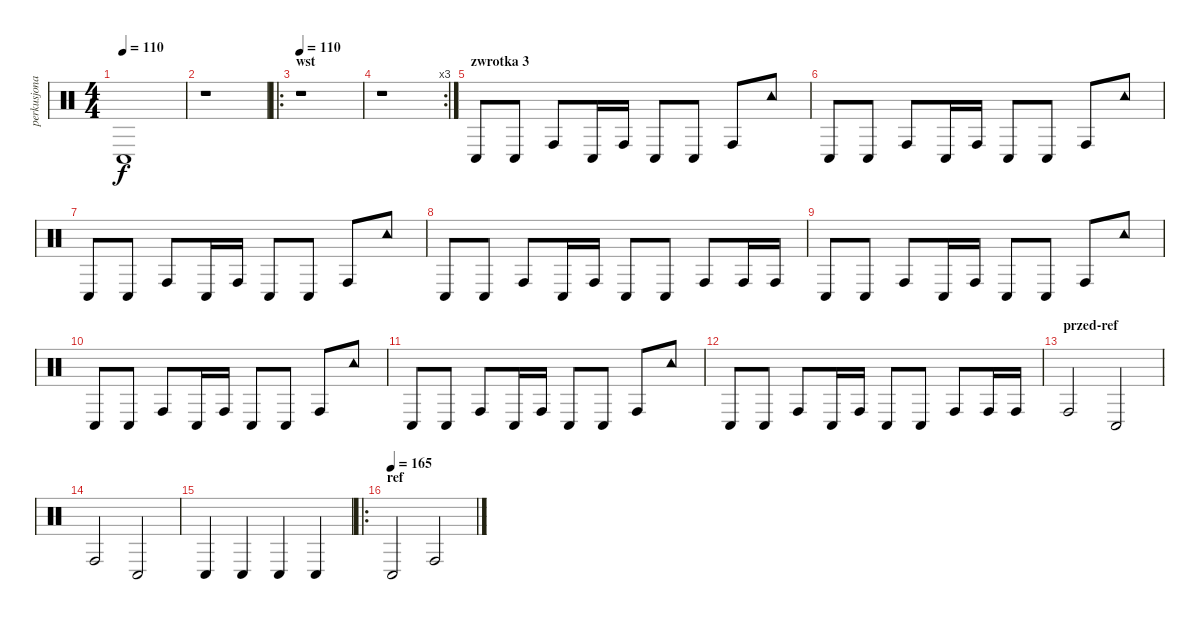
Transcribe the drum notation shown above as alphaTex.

\track ("perkusjonalia" "perkusjona") {instrument percussion}
\staff {score}
\articulation defaults
\ts (4 4)
\tempo 110
\clef neutral
\ks c "Conga low (hit)".1{dy f}
|
r.1 |
\ro
\section ("" "wst")
\tempo 110
r.1 |
\rc 3
r.1 |
\section ("" "zwrotka 3")
"Conga low (hit)".8 "Conga low (hit)".8 "Conga high (hit)".8 "Conga low (hit)".16 "Conga high (hit)".16 "Conga low (hit)".8 "Conga low (hit)".8 "Conga high (hit)".8 "Tambourine (hit)".8 |
"Conga low (hit)".8 "Conga low (hit)".8 "Conga high (hit)".8 "Conga low (hit)".16 "Conga high (hit)".16 "Conga low (hit)".8 "Conga low (hit)".8 "Conga high (hit)".8 "Tambourine (hit)".8 |
"Conga low (hit)".8 "Conga low (hit)".8 "Conga high (hit)".8 "Conga low (hit)".16 "Conga high (hit)".16 "Conga low (hit)".8 "Conga low (hit)".8 "Conga high (hit)".8 "Tambourine (hit)".8 |
"Conga low (hit)".8 "Conga low (hit)".8 "Conga high (hit)".8 "Conga low (hit)".16 "Conga high (hit)".16 "Conga low (hit)".8 "Conga low (hit)".8 "Conga high (hit)".8 "Conga high (hit)".16 "Conga high (hit)".16 |
"Conga low (hit)".8 "Conga low (hit)".8 "Conga high (hit)".8 "Conga low (hit)".16 "Conga high (hit)".16 "Conga low (hit)".8 "Conga low (hit)".8 "Conga high (hit)".8 "Tambourine (hit)".8 |
"Conga low (hit)".8 "Conga low (hit)".8 "Conga high (hit)".8 "Conga low (hit)".16 "Conga high (hit)".16 "Conga low (hit)".8 "Conga low (hit)".8 "Conga high (hit)".8 "Tambourine (hit)".8 |
"Conga low (hit)".8 "Conga low (hit)".8 "Conga high (hit)".8 "Conga low (hit)".16 "Conga high (hit)".16 "Conga low (hit)".8 "Conga low (hit)".8 "Conga high (hit)".8 "Tambourine (hit)".8 |
"Conga low (hit)".8 "Conga low (hit)".8 "Conga high (hit)".8 "Conga low (hit)".16 "Conga high (hit)".16 "Conga low (hit)".8 "Conga low (hit)".8 "Conga high (hit)".8 "Conga high (hit)".16 "Conga high (hit)".16 |
\section ("" "przed-ref")
"Conga high (hit)".2 "Conga low (hit)".2 |
"Conga high (hit)".2 "Conga low (hit)".2 |
"Conga low (hit)".4 "Conga low (hit)".4 "Conga low (hit)".4 "Conga low (hit)".4 |
\ro
\section ("" "ref")
\tempo (165)
"Conga low (hit)".2 "Conga high (hit)".2
